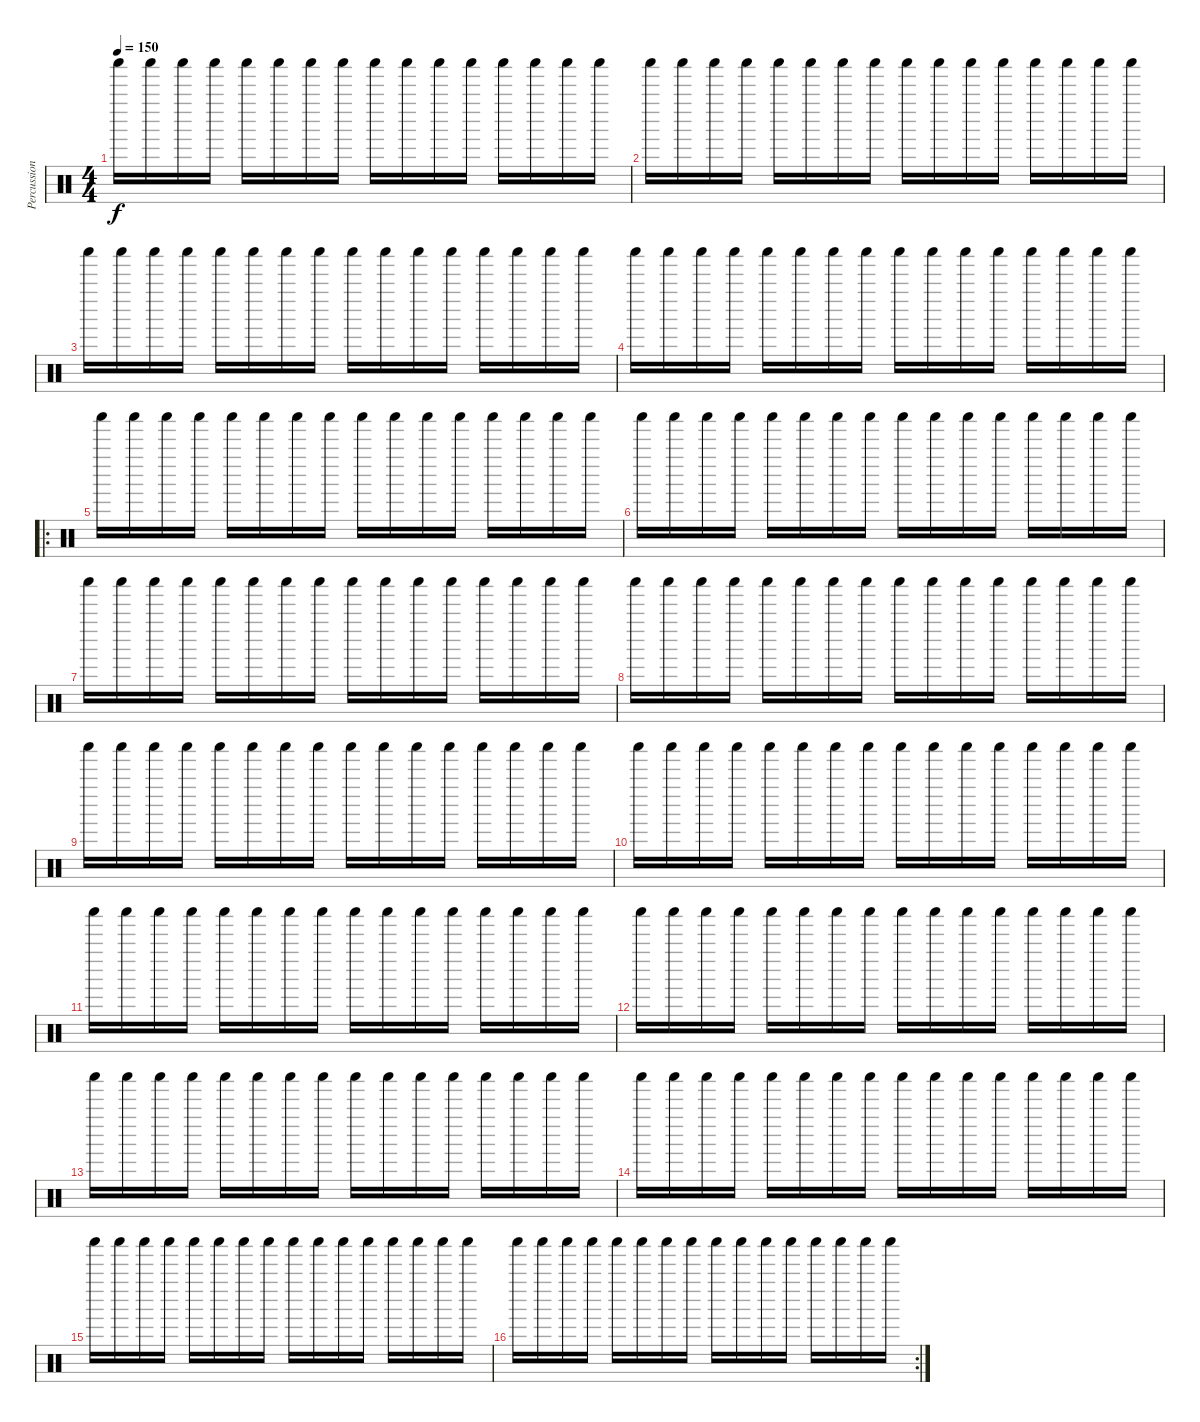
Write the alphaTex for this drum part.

\track ("Percussion" "Percussion") {instrument percussion}
\staff {score}
\articulation defaults
\ts (4 4)
\tempo 150
\clef neutral
\ks c "Shaker (hit)".16{dy f} "Shaker (hit)".16 "Shaker (hit)".16 "Shaker (hit)".16 "Shaker (hit)".16 "Shaker (hit)".16 "Shaker (hit)".16 "Shaker (hit)".16 "Shaker (hit)".16 "Shaker (hit)".16 "Shaker (hit)".16 "Shaker (hit)".16 "Shaker (hit)".16 "Shaker (hit)".16 "Shaker (hit)".16 "Shaker (hit)".16
|
"Shaker (hit)".16 "Shaker (hit)".16 "Shaker (hit)".16 "Shaker (hit)".16 "Shaker (hit)".16 "Shaker (hit)".16 "Shaker (hit)".16 "Shaker (hit)".16 "Shaker (hit)".16 "Shaker (hit)".16 "Shaker (hit)".16 "Shaker (hit)".16 "Shaker (hit)".16 "Shaker (hit)".16 "Shaker (hit)".16 "Shaker (hit)".16 |
"Shaker (hit)".16 "Shaker (hit)".16 "Shaker (hit)".16 "Shaker (hit)".16 "Shaker (hit)".16 "Shaker (hit)".16 "Shaker (hit)".16 "Shaker (hit)".16 "Shaker (hit)".16 "Shaker (hit)".16 "Shaker (hit)".16 "Shaker (hit)".16 "Shaker (hit)".16 "Shaker (hit)".16 "Shaker (hit)".16 "Shaker (hit)".16 |
"Shaker (hit)".16 "Shaker (hit)".16 "Shaker (hit)".16 "Shaker (hit)".16 "Shaker (hit)".16 "Shaker (hit)".16 "Shaker (hit)".16 "Shaker (hit)".16 "Shaker (hit)".16 "Shaker (hit)".16 "Shaker (hit)".16 "Shaker (hit)".16 "Shaker (hit)".16 "Shaker (hit)".16 "Shaker (hit)".16 "Shaker (hit)".16 |
\ro "Shaker (hit)".16 "Shaker (hit)".16 "Shaker (hit)".16 "Shaker (hit)".16 "Shaker (hit)".16 "Shaker (hit)".16 "Shaker (hit)".16 "Shaker (hit)".16 "Shaker (hit)".16 "Shaker (hit)".16 "Shaker (hit)".16 "Shaker (hit)".16 "Shaker (hit)".16 "Shaker (hit)".16 "Shaker (hit)".16 "Shaker (hit)".16
|
"Shaker (hit)".16 "Shaker (hit)".16 "Shaker (hit)".16 "Shaker (hit)".16 "Shaker (hit)".16 "Shaker (hit)".16 "Shaker (hit)".16 "Shaker (hit)".16 "Shaker (hit)".16 "Shaker (hit)".16 "Shaker (hit)".16 "Shaker (hit)".16 "Shaker (hit)".16 "Shaker (hit)".16 "Shaker (hit)".16 "Shaker (hit)".16 |
"Shaker (hit)".16 "Shaker (hit)".16 "Shaker (hit)".16 "Shaker (hit)".16 "Shaker (hit)".16 "Shaker (hit)".16 "Shaker (hit)".16 "Shaker (hit)".16 "Shaker (hit)".16 "Shaker (hit)".16 "Shaker (hit)".16 "Shaker (hit)".16 "Shaker (hit)".16 "Shaker (hit)".16 "Shaker (hit)".16 "Shaker (hit)".16 |
"Shaker (hit)".16 "Shaker (hit)".16 "Shaker (hit)".16 "Shaker (hit)".16 "Shaker (hit)".16 "Shaker (hit)".16 "Shaker (hit)".16 "Shaker (hit)".16 "Shaker (hit)".16 "Shaker (hit)".16 "Shaker (hit)".16 "Shaker (hit)".16 "Shaker (hit)".16 "Shaker (hit)".16 "Shaker (hit)".16 "Shaker (hit)".16 |
"Shaker (hit)".16 "Shaker (hit)".16 "Shaker (hit)".16 "Shaker (hit)".16 "Shaker (hit)".16 "Shaker (hit)".16 "Shaker (hit)".16 "Shaker (hit)".16 "Shaker (hit)".16 "Shaker (hit)".16 "Shaker (hit)".16 "Shaker (hit)".16 "Shaker (hit)".16 "Shaker (hit)".16 "Shaker (hit)".16 "Shaker (hit)".16 |
"Shaker (hit)".16 "Shaker (hit)".16 "Shaker (hit)".16 "Shaker (hit)".16 "Shaker (hit)".16 "Shaker (hit)".16 "Shaker (hit)".16 "Shaker (hit)".16 "Shaker (hit)".16 "Shaker (hit)".16 "Shaker (hit)".16 "Shaker (hit)".16 "Shaker (hit)".16 "Shaker (hit)".16 "Shaker (hit)".16 "Shaker (hit)".16 |
"Shaker (hit)".16 "Shaker (hit)".16 "Shaker (hit)".16 "Shaker (hit)".16 "Shaker (hit)".16 "Shaker (hit)".16 "Shaker (hit)".16 "Shaker (hit)".16 "Shaker (hit)".16 "Shaker (hit)".16 "Shaker (hit)".16 "Shaker (hit)".16 "Shaker (hit)".16 "Shaker (hit)".16 "Shaker (hit)".16 "Shaker (hit)".16 |
"Shaker (hit)".16 "Shaker (hit)".16 "Shaker (hit)".16 "Shaker (hit)".16 "Shaker (hit)".16 "Shaker (hit)".16 "Shaker (hit)".16 "Shaker (hit)".16 "Shaker (hit)".16 "Shaker (hit)".16 "Shaker (hit)".16 "Shaker (hit)".16 "Shaker (hit)".16 "Shaker (hit)".16 "Shaker (hit)".16 "Shaker (hit)".16 |
"Shaker (hit)".16 "Shaker (hit)".16 "Shaker (hit)".16 "Shaker (hit)".16 "Shaker (hit)".16 "Shaker (hit)".16 "Shaker (hit)".16 "Shaker (hit)".16 "Shaker (hit)".16 "Shaker (hit)".16 "Shaker (hit)".16 "Shaker (hit)".16 "Shaker (hit)".16 "Shaker (hit)".16 "Shaker (hit)".16 "Shaker (hit)".16 |
"Shaker (hit)".16 "Shaker (hit)".16 "Shaker (hit)".16 "Shaker (hit)".16 "Shaker (hit)".16 "Shaker (hit)".16 "Shaker (hit)".16 "Shaker (hit)".16 "Shaker (hit)".16 "Shaker (hit)".16 "Shaker (hit)".16 "Shaker (hit)".16 "Shaker (hit)".16 "Shaker (hit)".16 "Shaker (hit)".16 "Shaker (hit)".16 |
"Shaker (hit)".16 "Shaker (hit)".16 "Shaker (hit)".16 "Shaker (hit)".16 "Shaker (hit)".16 "Shaker (hit)".16 "Shaker (hit)".16 "Shaker (hit)".16 "Shaker (hit)".16 "Shaker (hit)".16 "Shaker (hit)".16 "Shaker (hit)".16 "Shaker (hit)".16 "Shaker (hit)".16 "Shaker (hit)".16 "Shaker (hit)".16 |
\rc 2 "Shaker (hit)".16 "Shaker (hit)".16 "Shaker (hit)".16 "Shaker (hit)".16 "Shaker (hit)".16 "Shaker (hit)".16 "Shaker (hit)".16 "Shaker (hit)".16 "Shaker (hit)".16 "Shaker (hit)".16 "Shaker (hit)".16 "Shaker (hit)".16 "Shaker (hit)".16 "Shaker (hit)".16 "Shaker (hit)".16 "Shaker (hit)".16
